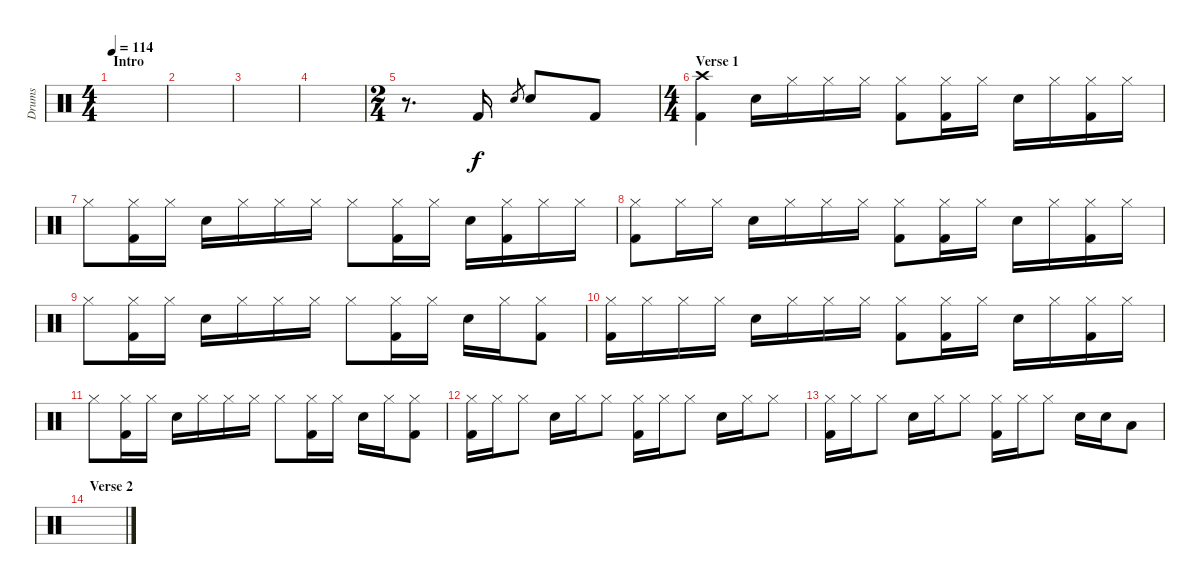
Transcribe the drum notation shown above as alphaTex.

\track ("Drums" "Drums") {instrument percussion}
\staff {score}
\articulation defaults
\ts (4 4)
\section ("" "Intro")
\tempo 114
\clef neutral
\ks c
|
|
|
|
\ts (2 4)
r.8{d} "Kick (hit) 2".16 "Electric Snare (hit)".8{gr} "Electric Snare (hit)".8 "Kick (hit) 2".8 |
\ts (4 4)
\section ("" "Verse 1")
("Crash high (hit)" "Kick (hit) 2").4 "Electric Snare (hit)".16 "Hi-Hat (closed)".16 "Hi-Hat (closed)".16 "Hi-Hat (closed)".16 ("Hi-Hat (closed)" "Kick (hit) 2").8 ("Hi-Hat (closed)" "Kick (hit) 2").16 "Hi-Hat (closed)".16 "Electric Snare (hit)".16 "Hi-Hat (closed)".16 ("Hi-Hat (closed)" "Kick (hit) 2").16 "Hi-Hat (closed)".16 |
"Hi-Hat (closed)".8 ("Hi-Hat (closed)" "Kick (hit) 2").16 "Hi-Hat (closed)".16 "Electric Snare (hit)".16 "Hi-Hat (closed)".16 "Hi-Hat (closed)".16 "Hi-Hat (closed)".16 "Hi-Hat (closed)".8 ("Hi-Hat (closed)" "Kick (hit) 2").16 "Hi-Hat (closed)".16 "Electric Snare (hit)".16 ("Hi-Hat (closed)" "Kick (hit) 2").16 "Hi-Hat (closed)".16 "Hi-Hat (closed)".16 |
("Hi-Hat (closed)" "Kick (hit) 2").8 "Hi-Hat (closed)".16 "Hi-Hat (closed)".16 "Electric Snare (hit)".16 "Hi-Hat (closed)".16 "Hi-Hat (closed)".16 "Hi-Hat (closed)".16 ("Hi-Hat (closed)" "Kick (hit) 2").8 ("Hi-Hat (closed)" "Kick (hit) 2").16 "Hi-Hat (closed)".16 "Electric Snare (hit)".16 "Hi-Hat (closed)".16 ("Hi-Hat (closed)" "Kick (hit) 2").16 "Hi-Hat (closed)".16 |
"Hi-Hat (closed)".8 ("Hi-Hat (closed)" "Kick (hit) 2").16 "Hi-Hat (closed)".16 "Electric Snare (hit)".16 "Hi-Hat (closed)".16 "Hi-Hat (closed)".16 "Hi-Hat (closed)".16 "Hi-Hat (closed)".8 ("Hi-Hat (closed)" "Kick (hit) 2").16 "Hi-Hat (closed)".16 "Electric Snare (hit)".16 "Hi-Hat (closed)".16 ("Hi-Hat (closed)" "Kick (hit) 2").8 |
("Hi-Hat (closed)" "Kick (hit) 2").16 "Hi-Hat (closed)".16 "Hi-Hat (closed)".16 "Hi-Hat (closed)".16 "Electric Snare (hit)".16 "Hi-Hat (closed)".16 "Hi-Hat (closed)".16 "Hi-Hat (closed)".16 ("Hi-Hat (closed)" "Kick (hit) 2").8 ("Hi-Hat (closed)" "Kick (hit) 2").16 "Hi-Hat (closed)".16 "Electric Snare (hit)".16 "Hi-Hat (closed)".16 ("Hi-Hat (closed)" "Kick (hit) 2").16 "Hi-Hat (closed)".16 |
"Hi-Hat (closed)".8 ("Hi-Hat (closed)" "Kick (hit) 2").16 "Hi-Hat (closed)".16 "Electric Snare (hit)".16 "Hi-Hat (closed)".16 "Hi-Hat (closed)".16 "Hi-Hat (closed)".16 "Hi-Hat (closed)".8 ("Hi-Hat (closed)" "Kick (hit) 2").16 "Hi-Hat (closed)".16 "Electric Snare (hit)".16 "Hi-Hat (closed)".16 ("Hi-Hat (closed)" "Kick (hit) 2").8 |
("Hi-Hat (closed)" "Kick (hit) 2").16 "Hi-Hat (closed)".16 "Hi-Hat (closed)".8 "Electric Snare (hit)".16 "Hi-Hat (closed)".16 "Hi-Hat (closed)".8 ("Hi-Hat (closed)" "Kick (hit) 2").16 "Hi-Hat (closed)".16 "Hi-Hat (closed)".8 "Electric Snare (hit)".16 "Hi-Hat (closed)".16 "Hi-Hat (closed)".8 |
("Hi-Hat (closed)" "Kick (hit) 2").16 "Hi-Hat (closed)".16 "Hi-Hat (closed)".8 "Electric Snare (hit)".16 "Hi-Hat (closed)".16 "Hi-Hat (closed)".8 ("Hi-Hat (closed)" "Kick (hit) 2").16 "Hi-Hat (closed)".16 "Hi-Hat (closed)".8 "Electric Snare (hit)".16 "Electric Snare (hit)".16 "Low Tom (hit)".8 |
\section ("" "Verse 2")
